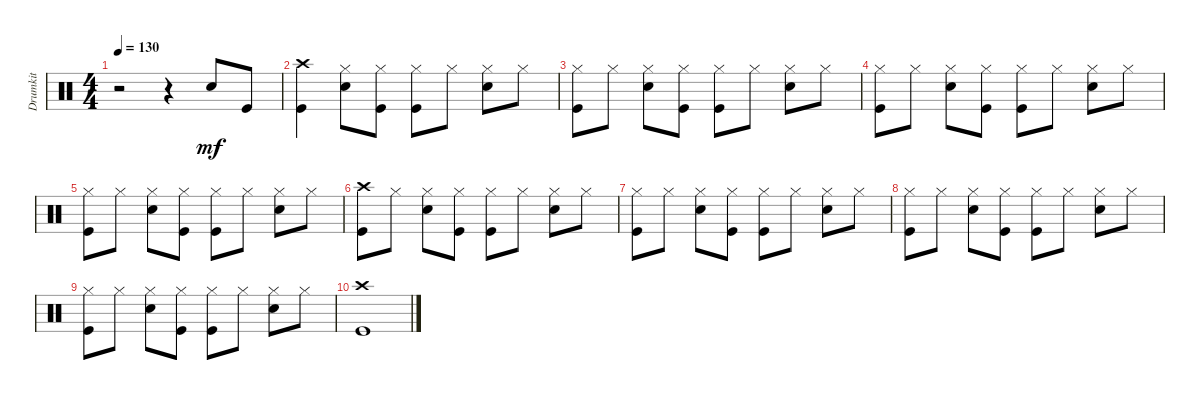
\track ("Drumkit" "Drumkit") {instrument percussion}
\staff {score}
\articulation defaults
\ts (4 4)
\tempo 130
\clef neutral
\ks c
r.2{dy mf} r.4 "Snare (hit) 2".8 "Kick (hit)".8 |
("Crash high (hit)" "Kick (hit)").4 ("Snare (hit) 2" "Hi-Hat (closed)").8 ("Kick (hit)" "Hi-Hat (closed)").8 ("Kick (hit)" "Hi-Hat (closed)").8 "Hi-Hat (closed)".8 ("Snare (hit) 2" "Hi-Hat (closed)").8 "Hi-Hat (closed)".8 |
("Kick (hit)" "Hi-Hat (closed)").8 "Hi-Hat (closed)".8 ("Snare (hit) 2" "Hi-Hat (closed)").8 ("Kick (hit)" "Hi-Hat (closed)").8 ("Kick (hit)" "Hi-Hat (closed)").8 "Hi-Hat (closed)".8 ("Snare (hit) 2" "Hi-Hat (closed)").8 "Hi-Hat (closed)".8 |
("Kick (hit)" "Hi-Hat (closed)").8 "Hi-Hat (closed)".8 ("Snare (hit) 2" "Hi-Hat (closed)").8 ("Kick (hit)" "Hi-Hat (closed)").8 ("Kick (hit)" "Hi-Hat (closed)").8 "Hi-Hat (closed)".8 ("Snare (hit) 2" "Hi-Hat (closed)").8 "Hi-Hat (closed)".8 |
("Kick (hit)" "Hi-Hat (closed)").8 "Hi-Hat (closed)".8 ("Snare (hit) 2" "Hi-Hat (closed)").8 ("Kick (hit)" "Hi-Hat (closed)").8 ("Kick (hit)" "Hi-Hat (closed)").8 "Hi-Hat (closed)".8 ("Snare (hit) 2" "Hi-Hat (closed)").8 "Hi-Hat (closed)".8 |
("Kick (hit)" "Crash high (hit)").8 "Hi-Hat (closed)".8 ("Snare (hit) 2" "Hi-Hat (closed)").8 ("Kick (hit)" "Hi-Hat (closed)").8 ("Kick (hit)" "Hi-Hat (closed)").8 "Hi-Hat (closed)".8 ("Snare (hit) 2" "Hi-Hat (closed)").8 "Hi-Hat (closed)".8 |
("Kick (hit)" "Hi-Hat (closed)").8 "Hi-Hat (closed)".8 ("Snare (hit) 2" "Hi-Hat (closed)").8 ("Kick (hit)" "Hi-Hat (closed)").8 ("Kick (hit)" "Hi-Hat (closed)").8 "Hi-Hat (closed)".8 ("Snare (hit) 2" "Hi-Hat (closed)").8 "Hi-Hat (closed)".8 |
("Kick (hit)" "Hi-Hat (closed)").8 "Hi-Hat (closed)".8 ("Snare (hit) 2" "Hi-Hat (closed)").8 ("Kick (hit)" "Hi-Hat (closed)").8 ("Kick (hit)" "Hi-Hat (closed)").8 "Hi-Hat (closed)".8 ("Snare (hit) 2" "Hi-Hat (closed)").8 "Hi-Hat (closed)".8 |
("Kick (hit)" "Hi-Hat (closed)").8 "Hi-Hat (closed)".8 ("Snare (hit) 2" "Hi-Hat (closed)").8 ("Kick (hit)" "Hi-Hat (closed)").8 ("Kick (hit)" "Hi-Hat (closed)").8 "Hi-Hat (closed)".8 ("Snare (hit) 2" "Hi-Hat (closed)").8 "Hi-Hat (closed)".8 |
("Crash high (hit)" "Kick (hit)").1
